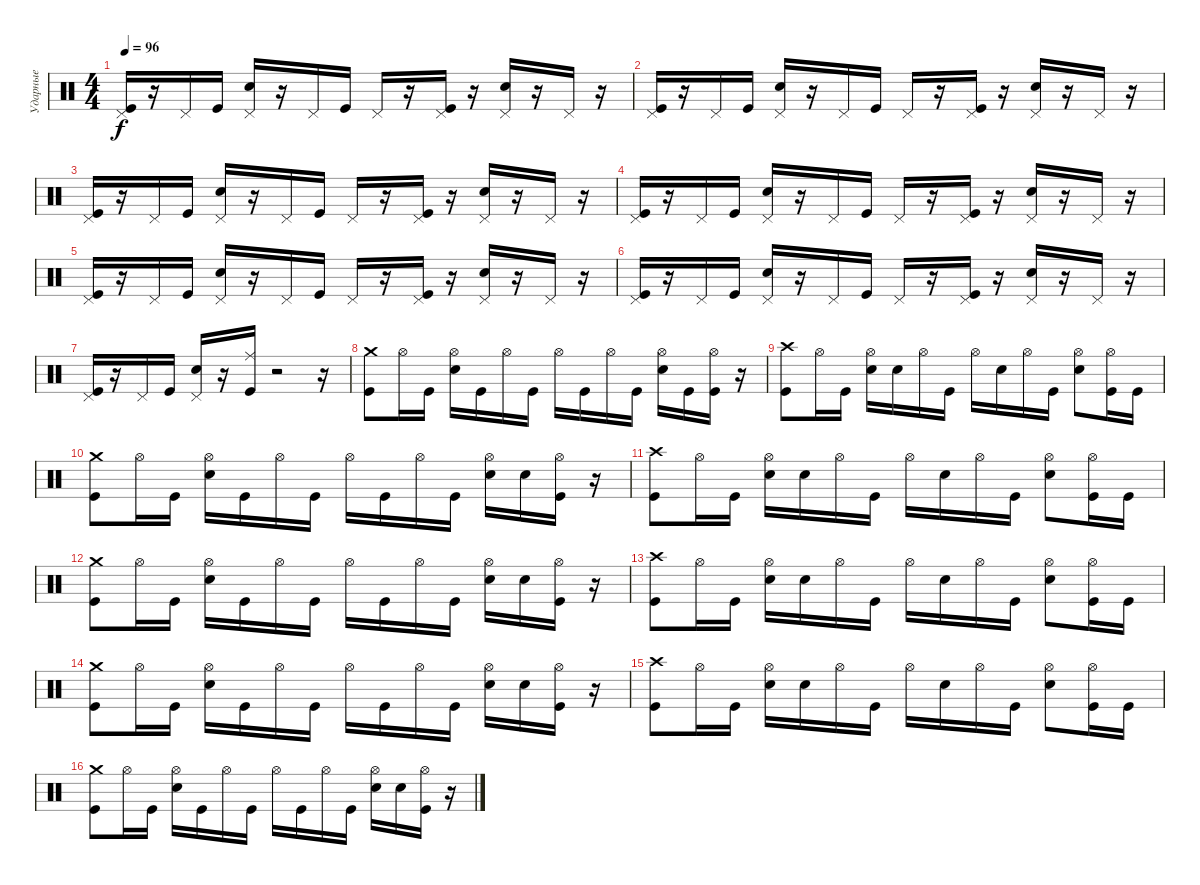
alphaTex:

\track ("Ударные" "Ударные") {instrument percussion}
\staff {score}
\articulation defaults
\ts (4 4)
\tempo 96
\clef neutral
\ks c
("Pedal Hi-Hat (hit)" "Kick (hit)").16{dy f} r.16 "Pedal Hi-Hat (hit)".16 "Kick (hit)".16 ("Pedal Hi-Hat (hit)" "Electric Snare (hit)").16 r.16 "Pedal Hi-Hat (hit)".16 "Kick (hit)".16 "Pedal Hi-Hat (hit)".16 r.16 ("Pedal Hi-Hat (hit)" "Kick (hit)").16 r.16 ("Pedal Hi-Hat (hit)" "Electric Snare (hit)").16 r.16 "Pedal Hi-Hat (hit)".16 r.16 |
("Pedal Hi-Hat (hit)" "Kick (hit)").16 r.16 "Pedal Hi-Hat (hit)".16 "Kick (hit)".16 ("Pedal Hi-Hat (hit)" "Electric Snare (hit)").16 r.16 "Pedal Hi-Hat (hit)".16 "Kick (hit)".16 "Pedal Hi-Hat (hit)".16 r.16 ("Pedal Hi-Hat (hit)" "Kick (hit)").16 r.16 ("Pedal Hi-Hat (hit)" "Electric Snare (hit)").16 r.16 "Pedal Hi-Hat (hit)".16 r.16 |
("Pedal Hi-Hat (hit)" "Kick (hit)").16 r.16 "Pedal Hi-Hat (hit)".16 "Kick (hit)".16 ("Pedal Hi-Hat (hit)" "Electric Snare (hit)").16 r.16 "Pedal Hi-Hat (hit)".16 "Kick (hit)".16 "Pedal Hi-Hat (hit)".16 r.16 ("Pedal Hi-Hat (hit)" "Kick (hit)").16 r.16 ("Pedal Hi-Hat (hit)" "Electric Snare (hit)").16 r.16 "Pedal Hi-Hat (hit)".16 r.16 |
("Pedal Hi-Hat (hit)" "Kick (hit)").16 r.16 "Pedal Hi-Hat (hit)".16 "Kick (hit)".16 ("Pedal Hi-Hat (hit)" "Electric Snare (hit)").16 r.16 "Pedal Hi-Hat (hit)".16 "Kick (hit)".16 "Pedal Hi-Hat (hit)".16 r.16 ("Pedal Hi-Hat (hit)" "Kick (hit)").16 r.16 ("Pedal Hi-Hat (hit)" "Electric Snare (hit)").16 r.16 "Pedal Hi-Hat (hit)".16 r.16 |
("Pedal Hi-Hat (hit)" "Kick (hit)").16 r.16 "Pedal Hi-Hat (hit)".16 "Kick (hit)".16 ("Pedal Hi-Hat (hit)" "Electric Snare (hit)").16 r.16 "Pedal Hi-Hat (hit)".16 "Kick (hit)".16 "Pedal Hi-Hat (hit)".16 r.16 ("Pedal Hi-Hat (hit)" "Kick (hit)").16 r.16 ("Pedal Hi-Hat (hit)" "Electric Snare (hit)").16 r.16 "Pedal Hi-Hat (hit)".16 r.16 |
("Pedal Hi-Hat (hit)" "Kick (hit)").16 r.16 "Pedal Hi-Hat (hit)".16 "Kick (hit)".16 ("Pedal Hi-Hat (hit)" "Electric Snare (hit)").16 r.16 "Pedal Hi-Hat (hit)".16 "Kick (hit)".16 "Pedal Hi-Hat (hit)".16 r.16 ("Pedal Hi-Hat (hit)" "Kick (hit)").16 r.16 ("Pedal Hi-Hat (hit)" "Electric Snare (hit)").16 r.16 "Pedal Hi-Hat (hit)".16 r.16 |
("Pedal Hi-Hat (hit)" "Kick (hit)").16 r.16 "Pedal Hi-Hat (hit)".16 "Kick (hit)".16 ("Pedal Hi-Hat (hit)" "Electric Snare (hit)").16 r.16 ("Ride (middle)" "Kick (hit)").16 r.2 r.16 |
("Crash medium (hit)" "Kick (hit)").8 "Hi-Hat (open)".16 "Kick (hit)".16 ("Hi-Hat (open)" "Electric Snare (hit)").16 "Kick (hit)".16 "Hi-Hat (open)".16 "Kick (hit)".16 "Hi-Hat (open)".16 "Kick (hit)".16 "Hi-Hat (open)".16 "Kick (hit)".16 ("Hi-Hat (open)" "Electric Snare (hit)").16 "Kick (hit)".16 ("Hi-Hat (open)" "Kick (hit)").16 r.16 |
("Crash high (hit)" "Kick (hit)").8 "Hi-Hat (open)".16 "Kick (hit)".16 ("Hi-Hat (open)" "Electric Snare (hit)").16 "Electric Snare (hit)".16 "Hi-Hat (open)".16 "Kick (hit)".16 "Hi-Hat (open)".16 "Electric Snare (hit)".16 "Hi-Hat (open)".16 "Kick (hit)".16 ("Hi-Hat (open)" "Electric Snare (hit)").8 ("Hi-Hat (open)" "Kick (hit)").16 "Kick (hit)".16 |
("Crash medium (hit)" "Kick (hit)").8 "Hi-Hat (open)".16 "Kick (hit)".16 ("Hi-Hat (open)" "Electric Snare (hit)").16 "Kick (hit)".16 "Hi-Hat (open)".16 "Kick (hit)".16 "Hi-Hat (open)".16 "Kick (hit)".16 "Hi-Hat (open)".16 "Kick (hit)".16 ("Hi-Hat (open)" "Electric Snare (hit)").16 "Electric Snare (hit)".16 ("Hi-Hat (open)" "Kick (hit)").16 r.16 |
("Crash high (hit)" "Kick (hit)").8 "Hi-Hat (open)".16 "Kick (hit)".16 ("Hi-Hat (open)" "Electric Snare (hit)").16 "Electric Snare (hit)".16 "Hi-Hat (open)".16 "Kick (hit)".16 "Hi-Hat (open)".16 "Electric Snare (hit)".16 "Hi-Hat (open)".16 "Kick (hit)".16 ("Hi-Hat (open)" "Electric Snare (hit)").8 ("Hi-Hat (open)" "Kick (hit)").16 "Kick (hit)".16 |
("Crash medium (hit)" "Kick (hit)").8 "Hi-Hat (open)".16 "Kick (hit)".16 ("Hi-Hat (open)" "Electric Snare (hit)").16 "Kick (hit)".16 "Hi-Hat (open)".16 "Kick (hit)".16 "Hi-Hat (open)".16 "Kick (hit)".16 "Hi-Hat (open)".16 "Kick (hit)".16 ("Hi-Hat (open)" "Electric Snare (hit)").16 "Electric Snare (hit)".16 ("Hi-Hat (open)" "Kick (hit)").16 r.16 |
("Crash high (hit)" "Kick (hit)").8 "Hi-Hat (open)".16 "Kick (hit)".16 ("Hi-Hat (open)" "Electric Snare (hit)").16 "Electric Snare (hit)".16 "Hi-Hat (open)".16 "Kick (hit)".16 "Hi-Hat (open)".16 "Electric Snare (hit)".16 "Hi-Hat (open)".16 "Kick (hit)".16 ("Hi-Hat (open)" "Electric Snare (hit)").8 ("Hi-Hat (open)" "Kick (hit)").16 "Kick (hit)".16 |
("Crash medium (hit)" "Kick (hit)").8 "Hi-Hat (open)".16 "Kick (hit)".16 ("Hi-Hat (open)" "Electric Snare (hit)").16 "Kick (hit)".16 "Hi-Hat (open)".16 "Kick (hit)".16 "Hi-Hat (open)".16 "Kick (hit)".16 "Hi-Hat (open)".16 "Kick (hit)".16 ("Hi-Hat (open)" "Electric Snare (hit)").16 "Electric Snare (hit)".16 ("Hi-Hat (open)" "Kick (hit)").16 r.16 |
("Crash high (hit)" "Kick (hit)").8 "Hi-Hat (open)".16 "Kick (hit)".16 ("Hi-Hat (open)" "Electric Snare (hit)").16 "Electric Snare (hit)".16 "Hi-Hat (open)".16 "Kick (hit)".16 "Hi-Hat (open)".16 "Electric Snare (hit)".16 "Hi-Hat (open)".16 "Kick (hit)".16 ("Hi-Hat (open)" "Electric Snare (hit)").8 ("Hi-Hat (open)" "Kick (hit)").16 "Kick (hit)".16 |
("Crash medium (hit)" "Kick (hit)").8 "Hi-Hat (open)".16 "Kick (hit)".16 ("Hi-Hat (open)" "Electric Snare (hit)").16 "Kick (hit)".16 "Hi-Hat (open)".16 "Kick (hit)".16 "Hi-Hat (open)".16 "Kick (hit)".16 "Hi-Hat (open)".16 "Kick (hit)".16 ("Hi-Hat (open)" "Electric Snare (hit)").16 "Electric Snare (hit)".16 ("Hi-Hat (open)" "Kick (hit)").16 r.16
